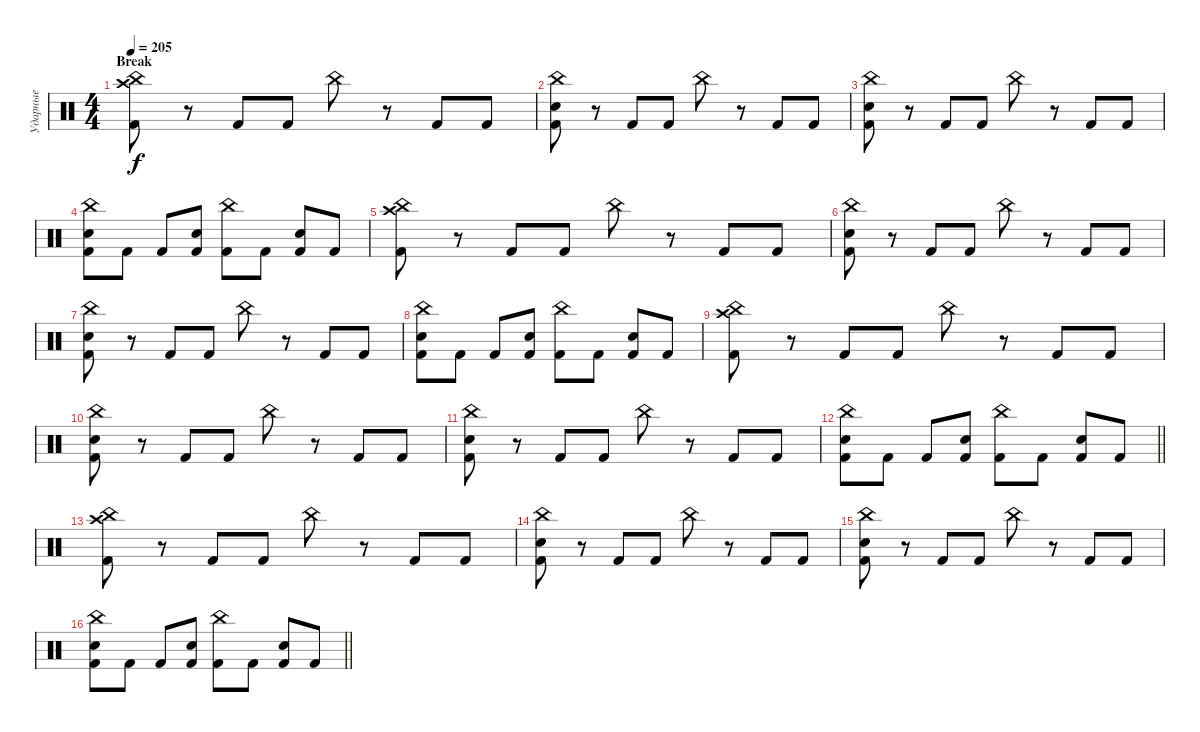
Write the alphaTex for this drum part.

\track ("Ударные" "Ударные") {instrument percussion}
\staff {score}
\articulation defaults
\ts (4 4)
\section ("" "Break")
\tempo 205
\clef neutral
\ks c
("China (hit)" "Crash high (hit)" "Kick (hit) 2").8{dy f} r.8 "Kick (hit) 2".8 "Kick (hit) 2".8 "China (hit)".8 r.8 "Kick (hit) 2".8 "Kick (hit) 2".8 |
("China (hit)" "Snare (hit) 2" "Kick (hit) 2").8 r.8 "Kick (hit) 2".8 "Kick (hit) 2".8 "China (hit)".8 r.8 "Kick (hit) 2".8 "Kick (hit) 2".8 |
("China (hit)" "Snare (hit) 2" "Kick (hit) 2").8 r.8 "Kick (hit) 2".8 "Kick (hit) 2".8 "China (hit)".8 r.8 "Kick (hit) 2".8 "Kick (hit) 2".8 |
("China (hit)" "Snare (hit) 2" "Kick (hit) 2").8 "Kick (hit) 2".8 "Kick (hit) 2".8 ("Snare (hit) 2" "Kick (hit) 2").8 ("China (hit)" "Kick (hit) 2").8 "Kick (hit) 2".8 ("Snare (hit) 2" "Kick (hit) 2").8 "Kick (hit) 2".8 |
("China (hit)" "Crash high (hit)" "Kick (hit) 2").8 r.8 "Kick (hit) 2".8 "Kick (hit) 2".8 "China (hit)".8 r.8 "Kick (hit) 2".8 "Kick (hit) 2".8 |
("China (hit)" "Snare (hit) 2" "Kick (hit) 2").8 r.8 "Kick (hit) 2".8 "Kick (hit) 2".8 "China (hit)".8 r.8 "Kick (hit) 2".8 "Kick (hit) 2".8 |
("China (hit)" "Snare (hit) 2" "Kick (hit) 2").8 r.8 "Kick (hit) 2".8 "Kick (hit) 2".8 "China (hit)".8 r.8 "Kick (hit) 2".8 "Kick (hit) 2".8 |
("China (hit)" "Snare (hit) 2" "Kick (hit) 2").8 "Kick (hit) 2".8 "Kick (hit) 2".8 ("Snare (hit) 2" "Kick (hit) 2").8 ("China (hit)" "Kick (hit) 2").8 "Kick (hit) 2".8 ("Snare (hit) 2" "Kick (hit) 2").8 "Kick (hit) 2".8 |
("China (hit)" "Crash high (hit)" "Kick (hit) 2").8 r.8 "Kick (hit) 2".8 "Kick (hit) 2".8 "China (hit)".8 r.8 "Kick (hit) 2".8 "Kick (hit) 2".8 |
("China (hit)" "Snare (hit) 2" "Kick (hit) 2").8 r.8 "Kick (hit) 2".8 "Kick (hit) 2".8 "China (hit)".8 r.8 "Kick (hit) 2".8 "Kick (hit) 2".8 |
("China (hit)" "Snare (hit) 2" "Kick (hit) 2").8 r.8 "Kick (hit) 2".8 "Kick (hit) 2".8 "China (hit)".8 r.8 "Kick (hit) 2".8 "Kick (hit) 2".8 |
\barLineRight lightlight
("China (hit)" "Snare (hit) 2" "Kick (hit) 2").8 "Kick (hit) 2".8 "Kick (hit) 2".8 ("Snare (hit) 2" "Kick (hit) 2").8 ("China (hit)" "Kick (hit) 2").8 "Kick (hit) 2".8 ("Snare (hit) 2" "Kick (hit) 2").8 "Kick (hit) 2".8 |
("China (hit)" "Crash high (hit)" "Kick (hit) 2").8 r.8 "Kick (hit) 2".8 "Kick (hit) 2".8 "China (hit)".8 r.8 "Kick (hit) 2".8 "Kick (hit) 2".8 |
("China (hit)" "Snare (hit) 2" "Kick (hit) 2").8 r.8 "Kick (hit) 2".8 "Kick (hit) 2".8 "China (hit)".8 r.8 "Kick (hit) 2".8 "Kick (hit) 2".8 |
("China (hit)" "Snare (hit) 2" "Kick (hit) 2").8 r.8 "Kick (hit) 2".8 "Kick (hit) 2".8 "China (hit)".8 r.8 "Kick (hit) 2".8 "Kick (hit) 2".8 |
\barLineRight lightlight
("China (hit)" "Snare (hit) 2" "Kick (hit) 2").8 "Kick (hit) 2".8 "Kick (hit) 2".8 ("Snare (hit) 2" "Kick (hit) 2").8 ("China (hit)" "Kick (hit) 2").8 "Kick (hit) 2".8 ("Snare (hit) 2" "Kick (hit) 2").8 "Kick (hit) 2".8
